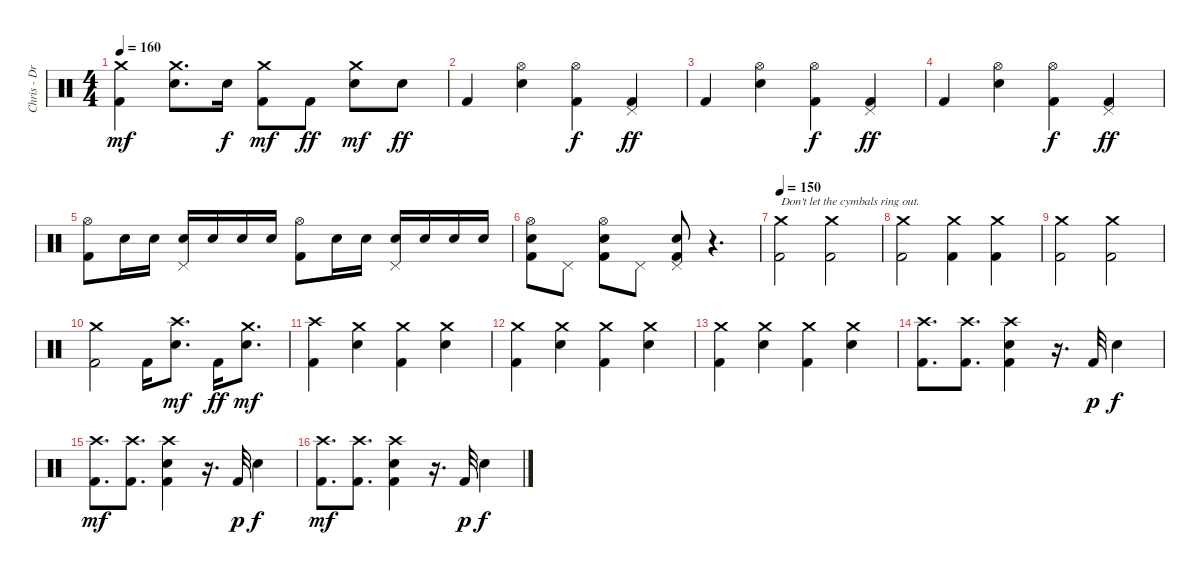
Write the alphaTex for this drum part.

\track ("Chris - Drums" "Chris - Dr") {instrument percussion}
\staff {score}
\articulation defaults
\ts (4 4)
\tempo 160
\clef neutral
\ks c
("Crash medium (hit)" "Kick (hit) 2").4{dy mf} ("Crash medium (hit)" "Electric Snare (hit)").8{d} "Electric Snare (hit)".16{dy f} ("Crash medium (hit)" "Kick (hit) 2").8{dy mf} "Kick (hit) 2".8{dy ff} ("Crash medium (hit)" "Electric Snare (hit)").8{dy mf} "Electric Snare (hit)".8{dy ff} |
"Kick (hit) 2".4 ("Hi-Hat (open)" "Electric Snare (hit)").4 ("Hi-Hat (open)" "Kick (hit) 2").4{dy f} ("Pedal Hi-Hat (hit)" "Kick (hit) 2").4{dy ff} |
"Kick (hit) 2".4 ("Hi-Hat (open)" "Electric Snare (hit)").4 ("Hi-Hat (open)" "Kick (hit) 2").4{dy f} ("Pedal Hi-Hat (hit)" "Kick (hit) 2").4{dy ff} |
"Kick (hit) 2".4 ("Hi-Hat (open)" "Electric Snare (hit)").4 ("Hi-Hat (open)" "Kick (hit) 2").4{dy f} ("Pedal Hi-Hat (hit)" "Kick (hit) 2").4{dy ff} |
("Hi-Hat (open)" "Kick (hit) 2").8 "Electric Snare (hit)".16 "Electric Snare (hit)".16 ("Pedal Hi-Hat (hit)" "Electric Snare (hit)").16 "Electric Snare (hit)".16 "Electric Snare (hit)".16 "Electric Snare (hit)".16 ("Hi-Hat (open)" "Kick (hit) 2").8 "Electric Snare (hit)".16 "Electric Snare (hit)".16 ("Pedal Hi-Hat (hit)" "Electric Snare (hit)").16 "Electric Snare (hit)".16 "Electric Snare (hit)".16 "Electric Snare (hit)".16 |
("Hi-Hat (open)" "Electric Snare (hit)" "Kick (hit) 2").8 "Pedal Hi-Hat (hit)".8 ("Hi-Hat (open)" "Electric Snare (hit)" "Kick (hit) 2").8 "Pedal Hi-Hat (hit)".8 ("Pedal Hi-Hat (hit)" "Electric Snare (hit)" "Kick (hit) 2").8 r.4{d} |
\tempo 150
("Crash medium (hit)" "Kick (hit) 2").2{txt "Don't let the cymbals ring out."} ("Crash medium (hit)" "Kick (hit) 2").2 |
("Crash medium (hit)" "Kick (hit) 2").2 ("Crash medium (hit)" "Kick (hit) 2").4 ("Crash medium (hit)" "Kick (hit) 2").4 |
("Crash medium (hit)" "Kick (hit) 2").2 ("Crash medium (hit)" "Kick (hit) 2").2 |
("Crash medium (hit)" "Kick (hit) 2").2 "Kick (hit) 2".16 ("Crash high (hit)" "Electric Snare (hit)").8{d dy mf} "Kick (hit) 2".16{dy ff} ("Crash medium (hit)" "Electric Snare (hit)").8{d dy mf} |
("Crash high (hit)" "Kick (hit) 2").4 ("Crash medium (hit)" "Electric Snare (hit)").4 ("Crash medium (hit)" "Kick (hit) 2").4 ("Crash medium (hit)" "Electric Snare (hit)").4 |
("Crash medium (hit)" "Kick (hit) 2").4 ("Crash medium (hit)" "Electric Snare (hit)").4 ("Crash medium (hit)" "Kick (hit) 2").4 ("Crash medium (hit)" "Electric Snare (hit)").4 |
("Crash medium (hit)" "Kick (hit) 2").4 ("Crash medium (hit)" "Electric Snare (hit)").4 ("Crash medium (hit)" "Kick (hit) 2").4 ("Crash medium (hit)" "Electric Snare (hit)").4 |
("Crash high (hit)" "Kick (hit) 2").8{d} ("Crash high (hit)" "Kick (hit) 2").8{d} ("Crash high (hit)" "Electric Snare (hit)" "Kick (hit) 2").4 r.16{d} "Kick (hit) 2".32{dy p} "Electric Snare (hit)".4{dy f} |
("Crash high (hit)" "Kick (hit) 2").8{d dy mf} ("Crash high (hit)" "Kick (hit) 2").8{d} ("Crash high (hit)" "Electric Snare (hit)" "Kick (hit) 2").4 r.16{d} "Kick (hit) 2".32{dy p} "Electric Snare (hit)".4{dy f} |
("Crash high (hit)" "Kick (hit) 2").8{d dy mf} ("Crash high (hit)" "Kick (hit) 2").8{d} ("Crash high (hit)" "Electric Snare (hit)" "Kick (hit) 2").4 r.16{d} "Kick (hit) 2".32{dy p} "Electric Snare (hit)".4{dy f}
